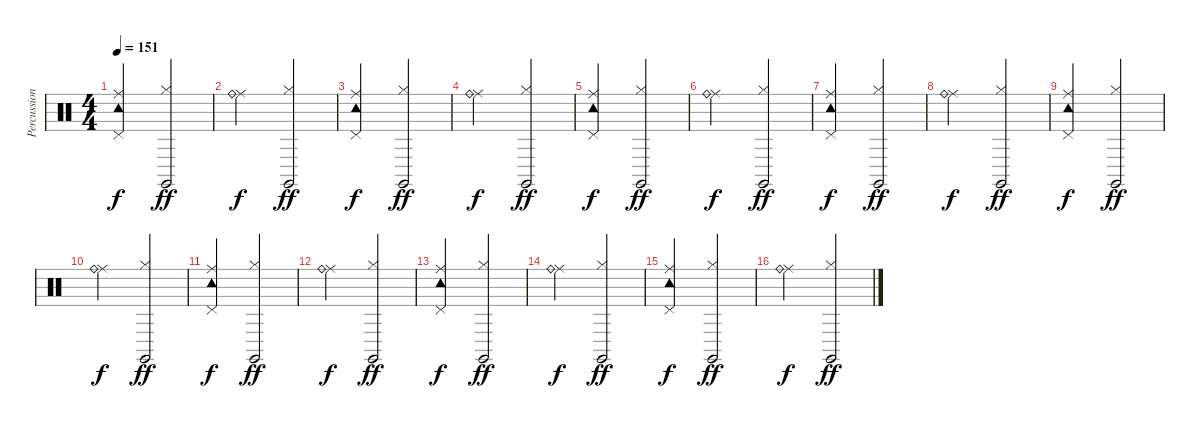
\track ("Percussion" "Percussion") {instrument percussion}
\staff {score}
\articulation defaults
\ts (4 4)
\tempo 151
\clef neutral
\ks c
("Ride (middle)" "Tambourine (hit)" "Pedal Hi-Hat (hit)").2{dy f} ("Hi-Hat (closed)" "Claves (hit)").2{dy ff} |
("Ride (middle)" "Ride (bell)").2{dy f} ("Hi-Hat (closed)" "Claves (hit)").2{dy ff} |
("Ride (middle)" "Tambourine (hit)" "Pedal Hi-Hat (hit)").2{dy f} ("Hi-Hat (closed)" "Claves (hit)").2{dy ff} |
("Ride (middle)" "Ride (bell)").2{dy f} ("Hi-Hat (closed)" "Claves (hit)").2{dy ff} |
("Ride (middle)" "Tambourine (hit)" "Pedal Hi-Hat (hit)").2{dy f} ("Hi-Hat (closed)" "Claves (hit)").2{dy ff} |
("Ride (middle)" "Ride (bell)").2{dy f} ("Hi-Hat (closed)" "Claves (hit)").2{dy ff} |
("Ride (middle)" "Tambourine (hit)" "Pedal Hi-Hat (hit)").2{dy f} ("Hi-Hat (closed)" "Claves (hit)").2{dy ff} |
("Ride (middle)" "Ride (bell)").2{dy f} ("Hi-Hat (closed)" "Claves (hit)").2{dy ff} |
("Ride (middle)" "Tambourine (hit)" "Pedal Hi-Hat (hit)").2{dy f} ("Hi-Hat (closed)" "Claves (hit)").2{dy ff} |
("Ride (middle)" "Ride (bell)").2{dy f} ("Hi-Hat (closed)" "Claves (hit)").2{dy ff} |
("Ride (middle)" "Tambourine (hit)" "Pedal Hi-Hat (hit)").2{dy f} ("Hi-Hat (closed)" "Claves (hit)").2{dy ff} |
("Ride (middle)" "Ride (bell)").2{dy f} ("Hi-Hat (closed)" "Claves (hit)").2{dy ff} |
("Ride (middle)" "Tambourine (hit)" "Pedal Hi-Hat (hit)").2{dy f} ("Hi-Hat (closed)" "Claves (hit)").2{dy ff} |
("Ride (middle)" "Ride (bell)").2{dy f} ("Hi-Hat (closed)" "Claves (hit)").2{dy ff} |
("Ride (middle)" "Tambourine (hit)" "Pedal Hi-Hat (hit)").2{dy f} ("Hi-Hat (closed)" "Claves (hit)").2{dy ff} |
("Ride (middle)" "Ride (bell)").2{dy f} ("Hi-Hat (closed)" "Claves (hit)").2{dy ff}
